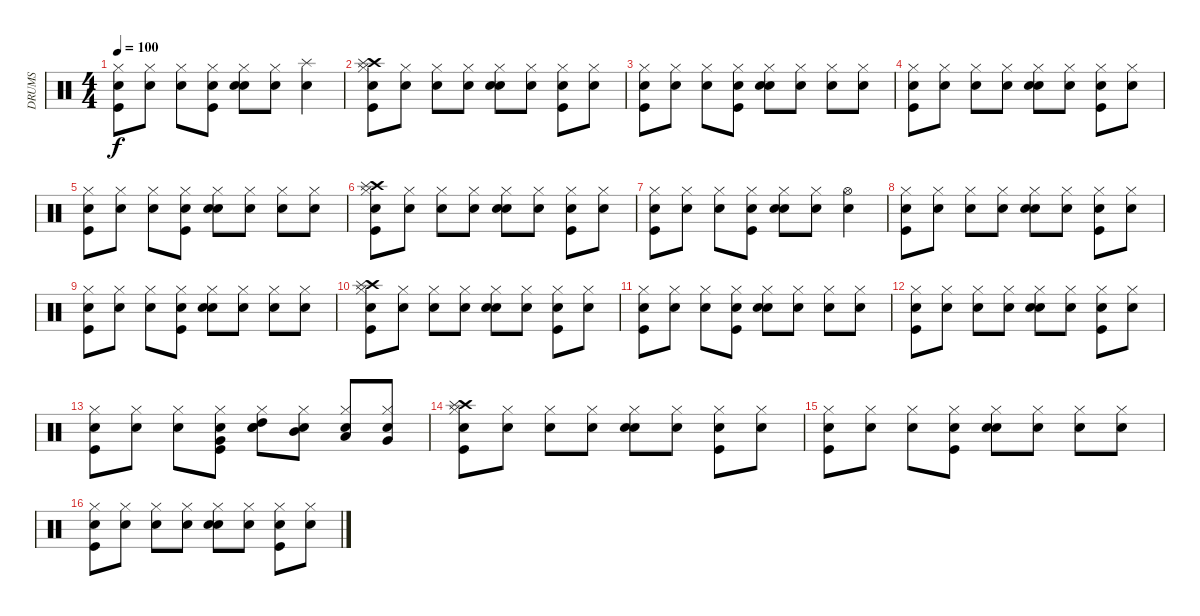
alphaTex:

\track ("DRUMS" "DRUMS") {instrument percussion}
\staff {score}
\articulation defaults
\ts (4 4)
\tempo 100
\clef neutral
\ks c
("Snare (hit)" "Kick (hit)" "Hi-Hat (closed)").8{dy f} ("Snare (hit)" "Hi-Hat (closed)").8 ("Snare (hit)" "Hi-Hat (closed)").8 ("Snare (hit)" "Kick (hit)" "Hi-Hat (closed)").8 ("Snare (hit)" "Snare (hit) 2" "Hi-Hat (closed)").8 ("Snare (hit)" "Hi-Hat (closed)").8 ("Snare (hit)" "Splash (hit)").4 |
("Snare (hit)" "Kick (hit)" "Crash high (hit)" "Splash (hit)" "Hi-Hat (closed)").8 ("Snare (hit)" "Hi-Hat (closed)").8 ("Snare (hit)" "Hi-Hat (closed)").8 ("Snare (hit)" "Hi-Hat (closed)").8 ("Snare (hit)" "Snare (hit) 2" "Hi-Hat (closed)").8 ("Snare (hit)" "Hi-Hat (closed)").8 ("Snare (hit)" "Kick (hit)" "Hi-Hat (closed)").8 ("Snare (hit)" "Hi-Hat (closed)").8 |
("Snare (hit)" "Kick (hit)" "Hi-Hat (closed)").8 ("Snare (hit)" "Hi-Hat (closed)").8 ("Snare (hit)" "Hi-Hat (closed)").8 ("Snare (hit)" "Kick (hit)" "Hi-Hat (closed)").8 ("Snare (hit)" "Snare (hit) 2" "Hi-Hat (closed)").8 ("Snare (hit)" "Hi-Hat (closed)").8 ("Snare (hit)" "Hi-Hat (closed)").8 ("Snare (hit)" "Hi-Hat (closed)").8 |
("Snare (hit)" "Kick (hit)" "Hi-Hat (closed)").8 ("Snare (hit)" "Hi-Hat (closed)").8 ("Snare (hit)" "Hi-Hat (closed)").8 ("Snare (hit)" "Hi-Hat (closed)").8 ("Snare (hit)" "Snare (hit) 2" "Hi-Hat (closed)").8 ("Snare (hit)" "Hi-Hat (closed)").8 ("Snare (hit)" "Kick (hit)" "Hi-Hat (closed)").8 ("Snare (hit)" "Hi-Hat (closed)").8 |
("Snare (hit)" "Kick (hit)" "Hi-Hat (closed)").8 ("Snare (hit)" "Hi-Hat (closed)").8 ("Snare (hit)" "Hi-Hat (closed)").8 ("Snare (hit)" "Kick (hit)" "Hi-Hat (closed)").8 ("Snare (hit)" "Snare (hit) 2" "Hi-Hat (closed)").8 ("Snare (hit)" "Hi-Hat (closed)").8 ("Snare (hit)" "Hi-Hat (closed)").8 ("Snare (hit)" "Hi-Hat (closed)").8 |
("Snare (hit)" "Kick (hit)" "Crash high (hit)" "Splash (hit)" "Hi-Hat (closed)").8 ("Snare (hit)" "Hi-Hat (closed)").8 ("Snare (hit)" "Hi-Hat (closed)").8 ("Snare (hit)" "Hi-Hat (closed)").8 ("Snare (hit)" "Snare (hit) 2" "Hi-Hat (closed)").8 ("Snare (hit)" "Hi-Hat (closed)").8 ("Snare (hit)" "Kick (hit)" "Hi-Hat (closed)").8 ("Snare (hit)" "Hi-Hat (closed)").8 |
("Snare (hit)" "Kick (hit)" "Hi-Hat (closed)").8 ("Snare (hit)" "Hi-Hat (closed)").8 ("Snare (hit)" "Hi-Hat (closed)").8 ("Snare (hit)" "Kick (hit)" "Hi-Hat (closed)").8 ("Snare (hit)" "Snare (hit) 2" "Hi-Hat (closed)").8 ("Snare (hit)" "Hi-Hat (closed)").8 ("Snare (hit)" "Hi-Hat (open)").4 |
("Snare (hit)" "Kick (hit)" "Hi-Hat (closed)").8 ("Snare (hit)" "Hi-Hat (closed)").8 ("Snare (hit)" "Hi-Hat (closed)").8 ("Snare (hit)" "Hi-Hat (closed)").8 ("Snare (hit)" "Snare (hit) 2" "Hi-Hat (closed)").8 ("Snare (hit)" "Hi-Hat (closed)").8 ("Snare (hit)" "Kick (hit)" "Hi-Hat (closed)").8 ("Snare (hit)" "Hi-Hat (closed)").8 |
("Snare (hit)" "Kick (hit)" "Hi-Hat (closed)").8 ("Snare (hit)" "Hi-Hat (closed)").8 ("Snare (hit)" "Hi-Hat (closed)").8 ("Snare (hit)" "Kick (hit)" "Hi-Hat (closed)").8 ("Snare (hit)" "Snare (hit) 2" "Hi-Hat (closed)").8 ("Snare (hit)" "Hi-Hat (closed)").8 ("Snare (hit)" "Hi-Hat (closed)").8 ("Snare (hit)" "Hi-Hat (closed)").8 |
("Snare (hit)" "Kick (hit)" "Crash high (hit)" "Splash (hit)" "Hi-Hat (closed)").8 ("Snare (hit)" "Hi-Hat (closed)").8 ("Snare (hit)" "Hi-Hat (closed)").8 ("Snare (hit)" "Hi-Hat (closed)").8 ("Snare (hit)" "Snare (hit) 2" "Hi-Hat (closed)").8 ("Snare (hit)" "Hi-Hat (closed)").8 ("Snare (hit)" "Kick (hit)" "Hi-Hat (closed)").8 ("Snare (hit)" "Hi-Hat (closed)").8 |
("Snare (hit)" "Kick (hit)" "Hi-Hat (closed)").8 ("Snare (hit)" "Hi-Hat (closed)").8 ("Snare (hit)" "Hi-Hat (closed)").8 ("Snare (hit)" "Kick (hit)" "Hi-Hat (closed)").8 ("Snare (hit)" "Snare (hit) 2" "Hi-Hat (closed)").8 ("Snare (hit)" "Hi-Hat (closed)").8 ("Snare (hit)" "Hi-Hat (closed)").8 ("Snare (hit)" "Hi-Hat (closed)").8 |
("Snare (hit)" "Kick (hit)" "Hi-Hat (closed)").8 ("Snare (hit)" "Hi-Hat (closed)").8 ("Snare (hit)" "Hi-Hat (closed)").8 ("Snare (hit)" "Hi-Hat (closed)").8 ("Snare (hit)" "Snare (hit) 2" "Hi-Hat (closed)").8 ("Snare (hit)" "Hi-Hat (closed)").8 ("Snare (hit)" "Kick (hit)" "Hi-Hat (closed)").8 ("Snare (hit)" "Hi-Hat (closed)").8 |
("Snare (hit)" "Kick (hit)" "Hi-Hat (closed)").8 ("Snare (hit)" "Hi-Hat (closed)").8 ("Snare (hit)" "Hi-Hat (closed)").8 ("Snare (hit)" "Very Low Tom (hit)" "Kick (hit)" "Hi-Hat (closed)").8 ("Snare (hit)" "High Tom (hit)" "Snare (hit) 2" "Hi-Hat (closed)").8 ("Snare (hit)" "Mid Tom (hit)" "Hi-Hat (closed)").8 ("Snare (hit)" "Low Tom (hit)" "Hi-Hat (closed)").8 ("Snare (hit)" "Very Low Tom (hit)" "Hi-Hat (closed)").8 |
("Snare (hit)" "Kick (hit)" "Crash high (hit)" "Splash (hit)" "Hi-Hat (closed)").8 ("Snare (hit)" "Hi-Hat (closed)").8 ("Snare (hit)" "Hi-Hat (closed)").8 ("Snare (hit)" "Hi-Hat (closed)").8 ("Snare (hit)" "Snare (hit) 2" "Hi-Hat (closed)").8 ("Snare (hit)" "Hi-Hat (closed)").8 ("Snare (hit)" "Kick (hit)" "Hi-Hat (closed)").8 ("Snare (hit)" "Hi-Hat (closed)").8 |
("Snare (hit)" "Kick (hit)" "Hi-Hat (closed)").8 ("Snare (hit)" "Hi-Hat (closed)").8 ("Snare (hit)" "Hi-Hat (closed)").8 ("Snare (hit)" "Kick (hit)" "Hi-Hat (closed)").8 ("Snare (hit)" "Snare (hit) 2" "Hi-Hat (closed)").8 ("Snare (hit)" "Hi-Hat (closed)").8 ("Snare (hit)" "Hi-Hat (closed)").8 ("Snare (hit)" "Hi-Hat (closed)").8 |
("Snare (hit)" "Kick (hit)" "Hi-Hat (closed)").8 ("Snare (hit)" "Hi-Hat (closed)").8 ("Snare (hit)" "Hi-Hat (closed)").8 ("Snare (hit)" "Hi-Hat (closed)").8 ("Snare (hit)" "Snare (hit) 2" "Hi-Hat (closed)").8 ("Snare (hit)" "Hi-Hat (closed)").8 ("Snare (hit)" "Kick (hit)" "Hi-Hat (closed)").8 ("Snare (hit)" "Hi-Hat (closed)").8
